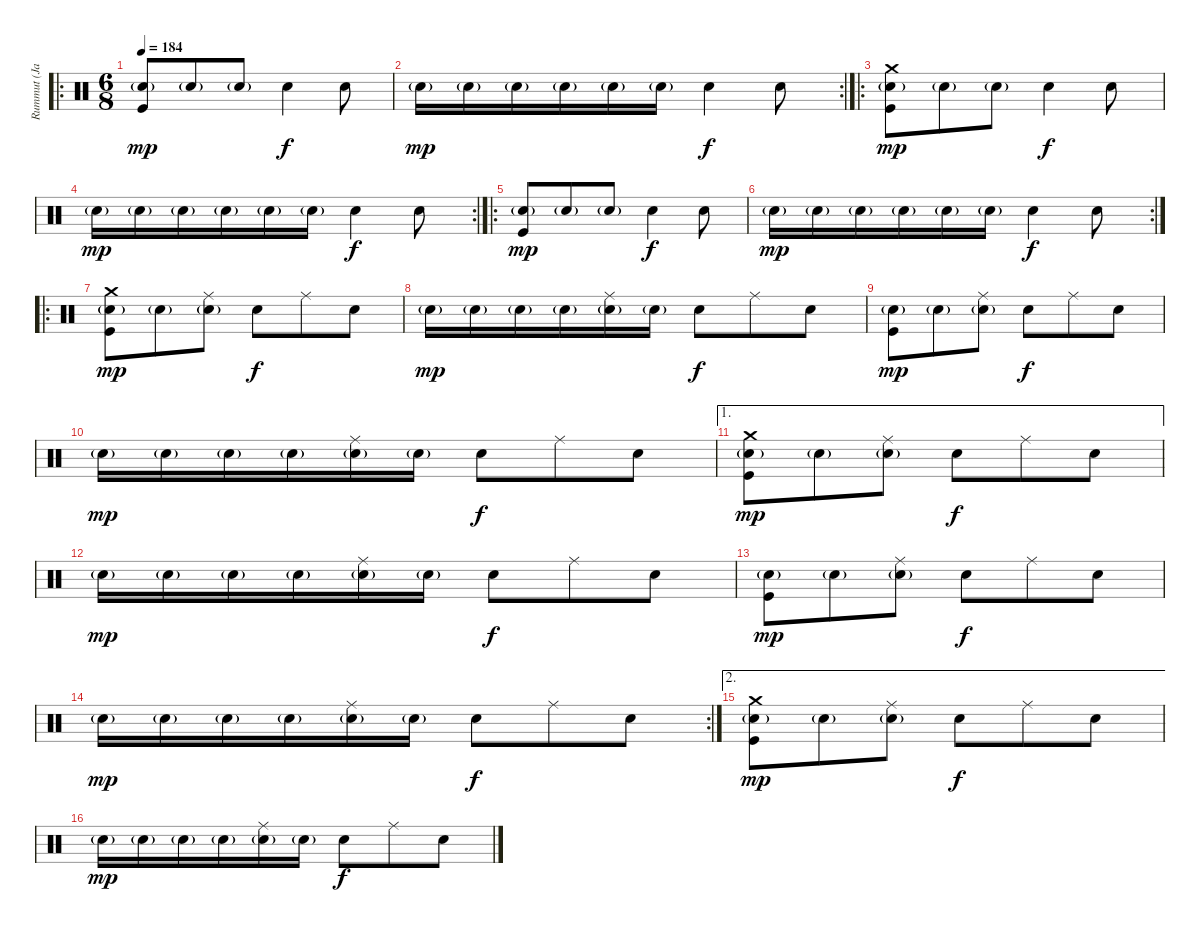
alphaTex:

\track ("Rummut (Janne)" "Rummut (Ja") {instrument percussion}
\staff {score}
\articulation defaults
\ro
\ts (6 8)
\tempo 184
\clef neutral
\ks c
("Snare (hit) 2"{g} "Kick (hit)").8{dy mp} "Snare (hit) 2"{g}.8 "Snare (hit) 2"{g}.8 "Snare (hit) 2".4{dy f} "Snare (hit) 2".8 |
\rc 2 "Snare (hit) 2"{g}.16{dy mp} "Snare (hit) 2"{g}.16 "Snare (hit) 2"{g}.16 "Snare (hit) 2"{g}.16 "Snare (hit) 2"{g}.16 "Snare (hit) 2"{g}.16 "Snare (hit) 2".4{dy f} "Snare (hit) 2".8
|
\ro
("Crash medium (hit)" "Snare (hit) 2"{g} "Kick (hit)").8{dy mp} "Snare (hit) 2"{g}.8 "Snare (hit) 2"{g}.8 "Snare (hit) 2".4{dy f} "Snare (hit) 2".8 |
\rc 2 "Snare (hit) 2"{g}.16{dy mp} "Snare (hit) 2"{g}.16 "Snare (hit) 2"{g}.16 "Snare (hit) 2"{g}.16 "Snare (hit) 2"{g}.16 "Snare (hit) 2"{g}.16 "Snare (hit) 2".4{dy f} "Snare (hit) 2".8
|
\ro
("Snare (hit) 2"{g} "Kick (hit)").8{dy mp} "Snare (hit) 2"{g}.8 "Snare (hit) 2"{g}.8 "Snare (hit) 2".4{dy f} "Snare (hit) 2".8 |
\rc 2 "Snare (hit) 2"{g}.16{dy mp} "Snare (hit) 2"{g}.16 "Snare (hit) 2"{g}.16 "Snare (hit) 2"{g}.16 "Snare (hit) 2"{g}.16 "Snare (hit) 2"{g}.16 "Snare (hit) 2".4{dy f} "Snare (hit) 2".8
|
\ro
("Crash medium (hit)" "Snare (hit) 2"{g} "Kick (hit)").8{dy mp} "Snare (hit) 2"{g}.8 ("Ride (middle)" "Snare (hit) 2"{g}).8 "Snare (hit) 2".8{dy f} "Ride (middle)".8 "Snare (hit) 2".8 |
"Snare (hit) 2"{g}.16{dy mp} "Snare (hit) 2"{g}.16 "Snare (hit) 2"{g}.16 "Snare (hit) 2"{g}.16 ("Ride (middle)" "Snare (hit) 2"{g}).16 "Snare (hit) 2"{g}.16 "Snare (hit) 2".8{dy f} "Ride (middle)".8 "Snare (hit) 2".8 |
("Snare (hit) 2"{g} "Kick (hit)").8{dy mp} "Snare (hit) 2"{g}.8 ("Ride (middle)" "Snare (hit) 2"{g}).8 "Snare (hit) 2".8{dy f} "Ride (middle)".8 "Snare (hit) 2".8 |
"Snare (hit) 2"{g}.16{dy mp} "Snare (hit) 2"{g}.16 "Snare (hit) 2"{g}.16 "Snare (hit) 2"{g}.16 ("Ride (middle)" "Snare (hit) 2"{g}).16 "Snare (hit) 2"{g}.16 "Snare (hit) 2".8{dy f} "Ride (middle)".8 "Snare (hit) 2".8 |
\ae 1
("Crash medium (hit)" "Snare (hit) 2"{g} "Kick (hit)").8{dy mp} "Snare (hit) 2"{g}.8 ("Ride (middle)" "Snare (hit) 2"{g}).8 "Snare (hit) 2".8{dy f} "Ride (middle)".8 "Snare (hit) 2".8 |
"Snare (hit) 2"{g}.16{dy mp} "Snare (hit) 2"{g}.16 "Snare (hit) 2"{g}.16 "Snare (hit) 2"{g}.16 ("Ride (middle)" "Snare (hit) 2"{g}).16 "Snare (hit) 2"{g}.16 "Snare (hit) 2".8{dy f} "Ride (middle)".8 "Snare (hit) 2".8 |
("Snare (hit) 2"{g} "Kick (hit)").8{dy mp} "Snare (hit) 2"{g}.8 ("Ride (middle)" "Snare (hit) 2"{g}).8 "Snare (hit) 2".8{dy f} "Ride (middle)".8 "Snare (hit) 2".8 |
\rc 2 "Snare (hit) 2"{g}.16{dy mp} "Snare (hit) 2"{g}.16 "Snare (hit) 2"{g}.16 "Snare (hit) 2"{g}.16
("Ride (middle)" "Snare (hit) 2"{g}).16 "Snare (hit) 2"{g}.16 "Snare (hit) 2".8{dy f} "Ride (middle)".8 "Snare (hit) 2".8 |
\ae 2
("Crash medium (hit)" "Snare (hit) 2"{g} "Kick (hit)").8{dy mp} "Snare (hit) 2"{g}.8 ("Ride (middle)" "Snare (hit) 2"{g}).8 "Snare (hit) 2".8{dy f} "Ride (middle)".8 "Snare (hit) 2".8 |
"Snare (hit) 2"{g}.16{dy mp} "Snare (hit) 2"{g}.16 "Snare (hit) 2"{g}.16 "Snare (hit) 2"{g}.16 ("Ride (middle)" "Snare (hit) 2"{g}).16 "Snare (hit) 2"{g}.16 "Snare (hit) 2".8{dy f} "Ride (middle)".8 "Snare (hit) 2".8
